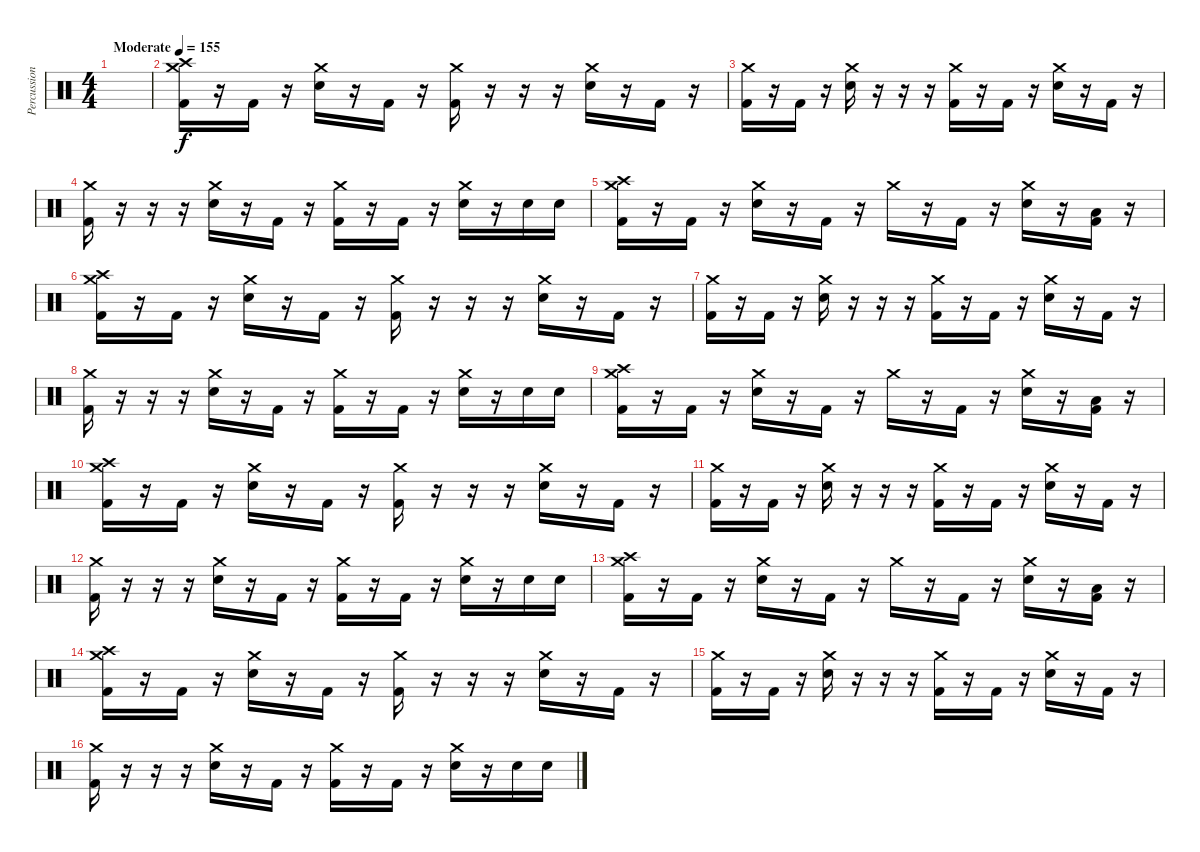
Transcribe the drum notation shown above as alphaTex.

\track ("Percussion" "Percussion") {instrument percussion}
\staff {score}
\articulation defaults
\ts (4 4)
\tempo (155 "Moderate")
\clef neutral
\ks c
|
("Crash high (hit)" "Crash medium (hit)" "Kick (hit) 2").16 r.16 "Kick (hit) 2".16 r.16 ("Crash medium (hit)" "Snare (hit) 2").16 r.16 "Kick (hit) 2".16 r.16 ("Crash medium (hit)" "Kick (hit) 2").16 r.16 r.16 r.16 ("Crash medium (hit)" "Snare (hit) 2").16 r.16 "Kick (hit) 2".16 r.16 |
("Crash medium (hit)" "Kick (hit) 2").16 r.16 "Kick (hit) 2".16 r.16 ("Crash medium (hit)" "Snare (hit) 2").16 r.16 r.16 r.16 ("Crash medium (hit)" "Kick (hit) 2").16 r.16 "Kick (hit) 2".16 r.16 ("Crash medium (hit)" "Snare (hit) 2").16 r.16 "Kick (hit) 2".16 r.16 |
("Crash medium (hit)" "Kick (hit) 2").16 r.16 r.16 r.16 ("Crash medium (hit)" "Snare (hit) 2").16 r.16 "Kick (hit) 2".16 r.16 ("Crash medium (hit)" "Kick (hit) 2").16 r.16 "Kick (hit) 2".16 r.16 ("Crash medium (hit)" "Snare (hit) 2").16 r.16 "Snare (hit) 2".16 "Snare (hit) 2".16 |
("Crash high (hit)" "Crash medium (hit)" "Kick (hit) 2").16 r.16 "Kick (hit) 2".16 r.16 ("Crash medium (hit)" "Snare (hit) 2").16 r.16 "Kick (hit) 2".16 r.16 "Crash medium (hit)".16 r.16 "Kick (hit) 2".16 r.16 ("Crash medium (hit)" "Snare (hit) 2").16 r.16 ("Low Floor Tom (hit)" "Kick (hit) 2").16 r.16 |
("Crash high (hit)" "Crash medium (hit)" "Kick (hit) 2").16 r.16 "Kick (hit) 2".16 r.16 ("Crash medium (hit)" "Snare (hit) 2").16 r.16 "Kick (hit) 2".16 r.16 ("Crash medium (hit)" "Kick (hit) 2").16 r.16 r.16 r.16 ("Crash medium (hit)" "Snare (hit) 2").16 r.16 "Kick (hit) 2".16 r.16 |
("Crash medium (hit)" "Kick (hit) 2").16 r.16 "Kick (hit) 2".16 r.16 ("Crash medium (hit)" "Snare (hit) 2").16 r.16 r.16 r.16 ("Crash medium (hit)" "Kick (hit) 2").16 r.16 "Kick (hit) 2".16 r.16 ("Crash medium (hit)" "Snare (hit) 2").16 r.16 "Kick (hit) 2".16 r.16 |
("Crash medium (hit)" "Kick (hit) 2").16 r.16 r.16 r.16 ("Crash medium (hit)" "Snare (hit) 2").16 r.16 "Kick (hit) 2".16 r.16 ("Crash medium (hit)" "Kick (hit) 2").16 r.16 "Kick (hit) 2".16 r.16 ("Crash medium (hit)" "Snare (hit) 2").16 r.16 "Snare (hit) 2".16 "Snare (hit) 2".16 |
("Crash high (hit)" "Crash medium (hit)" "Kick (hit) 2").16 r.16 "Kick (hit) 2".16 r.16 ("Crash medium (hit)" "Snare (hit) 2").16 r.16 "Kick (hit) 2".16 r.16 "Crash medium (hit)".16 r.16 "Kick (hit) 2".16 r.16 ("Crash medium (hit)" "Snare (hit) 2").16 r.16 ("Low Floor Tom (hit)" "Kick (hit) 2").16 r.16 |
("Crash high (hit)" "Crash medium (hit)" "Kick (hit) 2").16 r.16 "Kick (hit) 2".16 r.16 ("Crash medium (hit)" "Snare (hit) 2").16 r.16 "Kick (hit) 2".16 r.16 ("Crash medium (hit)" "Kick (hit) 2").16 r.16 r.16 r.16 ("Crash medium (hit)" "Snare (hit) 2").16 r.16 "Kick (hit) 2".16 r.16 |
("Crash medium (hit)" "Kick (hit) 2").16 r.16 "Kick (hit) 2".16 r.16 ("Crash medium (hit)" "Snare (hit) 2").16 r.16 r.16 r.16 ("Crash medium (hit)" "Kick (hit) 2").16 r.16 "Kick (hit) 2".16 r.16 ("Crash medium (hit)" "Snare (hit) 2").16 r.16 "Kick (hit) 2".16 r.16 |
("Crash medium (hit)" "Kick (hit) 2").16 r.16 r.16 r.16 ("Crash medium (hit)" "Snare (hit) 2").16 r.16 "Kick (hit) 2".16 r.16 ("Crash medium (hit)" "Kick (hit) 2").16 r.16 "Kick (hit) 2".16 r.16 ("Crash medium (hit)" "Snare (hit) 2").16 r.16 "Snare (hit) 2".16 "Snare (hit) 2".16 |
("Crash high (hit)" "Crash medium (hit)" "Kick (hit) 2").16 r.16 "Kick (hit) 2".16 r.16 ("Crash medium (hit)" "Snare (hit) 2").16 r.16 "Kick (hit) 2".16 r.16 "Crash medium (hit)".16 r.16 "Kick (hit) 2".16 r.16 ("Crash medium (hit)" "Snare (hit) 2").16 r.16 ("Low Floor Tom (hit)" "Kick (hit) 2").16 r.16 |
("Crash high (hit)" "Crash medium (hit)" "Kick (hit) 2").16 r.16 "Kick (hit) 2".16 r.16 ("Crash medium (hit)" "Snare (hit) 2").16 r.16 "Kick (hit) 2".16 r.16 ("Crash medium (hit)" "Kick (hit) 2").16 r.16 r.16 r.16 ("Crash medium (hit)" "Snare (hit) 2").16 r.16 "Kick (hit) 2".16 r.16 |
("Crash medium (hit)" "Kick (hit) 2").16 r.16 "Kick (hit) 2".16 r.16 ("Crash medium (hit)" "Snare (hit) 2").16 r.16 r.16 r.16 ("Crash medium (hit)" "Kick (hit) 2").16 r.16 "Kick (hit) 2".16 r.16 ("Crash medium (hit)" "Snare (hit) 2").16 r.16 "Kick (hit) 2".16 r.16 |
("Crash medium (hit)" "Kick (hit) 2").16 r.16 r.16 r.16 ("Crash medium (hit)" "Snare (hit) 2").16 r.16 "Kick (hit) 2".16 r.16 ("Crash medium (hit)" "Kick (hit) 2").16 r.16 "Kick (hit) 2".16 r.16 ("Crash medium (hit)" "Snare (hit) 2").16 r.16 "Snare (hit) 2".16 "Snare (hit) 2".16
